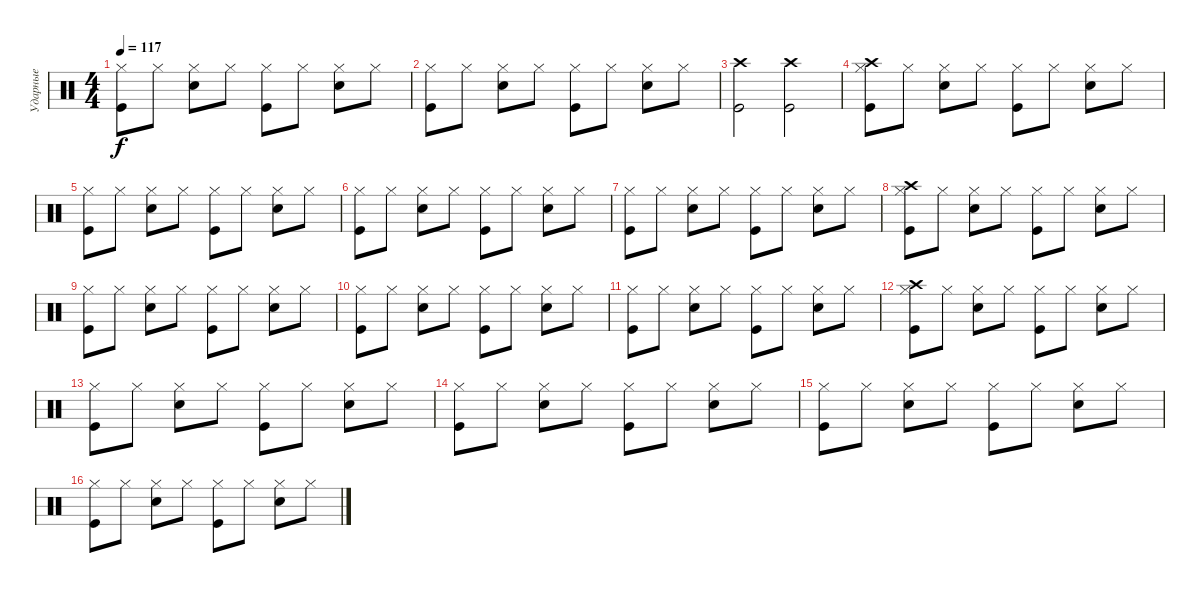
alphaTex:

\track ("Ударные" "Ударные") {instrument percussion}
\staff {score}
\articulation defaults
\ts (4 4)
\tempo 117
\clef neutral
\ks c
("Kick (hit)" "Hi-Hat (closed)").8{dy f} "Hi-Hat (closed)".8 ("Hi-Hat (closed)" "Snare (hit) 2").8 "Hi-Hat (closed)".8 ("Kick (hit)" "Hi-Hat (closed)").8 "Hi-Hat (closed)".8 ("Hi-Hat (closed)" "Snare (hit) 2").8 "Hi-Hat (closed)".8 |
("Kick (hit)" "Hi-Hat (closed)").8 "Hi-Hat (closed)".8 ("Hi-Hat (closed)" "Snare (hit) 2").8 "Hi-Hat (closed)".8 ("Kick (hit)" "Hi-Hat (closed)").8 "Hi-Hat (closed)".8 ("Hi-Hat (closed)" "Snare (hit) 2").8 "Hi-Hat (closed)".8 |
("Kick (hit)" "Crash high (hit)").2 ("Kick (hit)" "Crash high (hit)").2 |
("Kick (hit)" "Hi-Hat (closed)" "Crash high (hit)").8 "Hi-Hat (closed)".8 ("Hi-Hat (closed)" "Snare (hit) 2").8 "Hi-Hat (closed)".8 ("Kick (hit)" "Hi-Hat (closed)").8 "Hi-Hat (closed)".8 ("Hi-Hat (closed)" "Snare (hit) 2").8 "Hi-Hat (closed)".8 |
("Kick (hit)" "Hi-Hat (closed)").8 "Hi-Hat (closed)".8 ("Hi-Hat (closed)" "Snare (hit) 2").8 "Hi-Hat (closed)".8 ("Kick (hit)" "Hi-Hat (closed)").8 "Hi-Hat (closed)".8 ("Hi-Hat (closed)" "Snare (hit) 2").8 "Hi-Hat (closed)".8 |
("Kick (hit)" "Hi-Hat (closed)").8 "Hi-Hat (closed)".8 ("Hi-Hat (closed)" "Snare (hit) 2").8 "Hi-Hat (closed)".8 ("Kick (hit)" "Hi-Hat (closed)").8 "Hi-Hat (closed)".8 ("Hi-Hat (closed)" "Snare (hit) 2").8 "Hi-Hat (closed)".8 |
("Kick (hit)" "Hi-Hat (closed)").8 "Hi-Hat (closed)".8 ("Hi-Hat (closed)" "Snare (hit) 2").8 "Hi-Hat (closed)".8 ("Kick (hit)" "Hi-Hat (closed)").8 "Hi-Hat (closed)".8 ("Hi-Hat (closed)" "Snare (hit) 2").8 "Hi-Hat (closed)".8 |
("Kick (hit)" "Hi-Hat (closed)" "Crash high (hit)").8 "Hi-Hat (closed)".8 ("Hi-Hat (closed)" "Snare (hit) 2").8 "Hi-Hat (closed)".8 ("Kick (hit)" "Hi-Hat (closed)").8 "Hi-Hat (closed)".8 ("Hi-Hat (closed)" "Snare (hit) 2").8 "Hi-Hat (closed)".8 |
("Kick (hit)" "Hi-Hat (closed)").8 "Hi-Hat (closed)".8 ("Hi-Hat (closed)" "Snare (hit) 2").8 "Hi-Hat (closed)".8 ("Kick (hit)" "Hi-Hat (closed)").8 "Hi-Hat (closed)".8 ("Hi-Hat (closed)" "Snare (hit) 2").8 "Hi-Hat (closed)".8 |
("Kick (hit)" "Hi-Hat (closed)").8 "Hi-Hat (closed)".8 ("Hi-Hat (closed)" "Snare (hit) 2").8 "Hi-Hat (closed)".8 ("Kick (hit)" "Hi-Hat (closed)").8 "Hi-Hat (closed)".8 ("Hi-Hat (closed)" "Snare (hit) 2").8 "Hi-Hat (closed)".8 |
("Kick (hit)" "Hi-Hat (closed)").8 "Hi-Hat (closed)".8 ("Hi-Hat (closed)" "Snare (hit) 2").8 "Hi-Hat (closed)".8 ("Kick (hit)" "Hi-Hat (closed)").8 "Hi-Hat (closed)".8 ("Hi-Hat (closed)" "Snare (hit) 2").8 "Hi-Hat (closed)".8 |
("Kick (hit)" "Hi-Hat (closed)" "Crash high (hit)").8 "Hi-Hat (closed)".8 ("Hi-Hat (closed)" "Snare (hit) 2").8 "Hi-Hat (closed)".8 ("Kick (hit)" "Hi-Hat (closed)").8 "Hi-Hat (closed)".8 ("Hi-Hat (closed)" "Snare (hit) 2").8 "Hi-Hat (closed)".8 |
("Kick (hit)" "Hi-Hat (closed)").8 "Hi-Hat (closed)".8 ("Hi-Hat (closed)" "Snare (hit) 2").8 "Hi-Hat (closed)".8 ("Kick (hit)" "Hi-Hat (closed)").8 "Hi-Hat (closed)".8 ("Hi-Hat (closed)" "Snare (hit) 2").8 "Hi-Hat (closed)".8 |
("Kick (hit)" "Hi-Hat (closed)").8 "Hi-Hat (closed)".8 ("Hi-Hat (closed)" "Snare (hit) 2").8 "Hi-Hat (closed)".8 ("Kick (hit)" "Hi-Hat (closed)").8 "Hi-Hat (closed)".8 ("Hi-Hat (closed)" "Snare (hit) 2").8 "Hi-Hat (closed)".8 |
("Kick (hit)" "Hi-Hat (closed)").8 "Hi-Hat (closed)".8 ("Hi-Hat (closed)" "Snare (hit) 2").8 "Hi-Hat (closed)".8 ("Kick (hit)" "Hi-Hat (closed)").8 "Hi-Hat (closed)".8 ("Hi-Hat (closed)" "Snare (hit) 2").8 "Hi-Hat (closed)".8 |
("Kick (hit)" "Hi-Hat (closed)").8 "Hi-Hat (closed)".8 ("Hi-Hat (closed)" "Snare (hit) 2").8 "Hi-Hat (closed)".8 ("Kick (hit)" "Hi-Hat (closed)").8 "Hi-Hat (closed)".8 ("Hi-Hat (closed)" "Snare (hit) 2").8 "Hi-Hat (closed)".8
